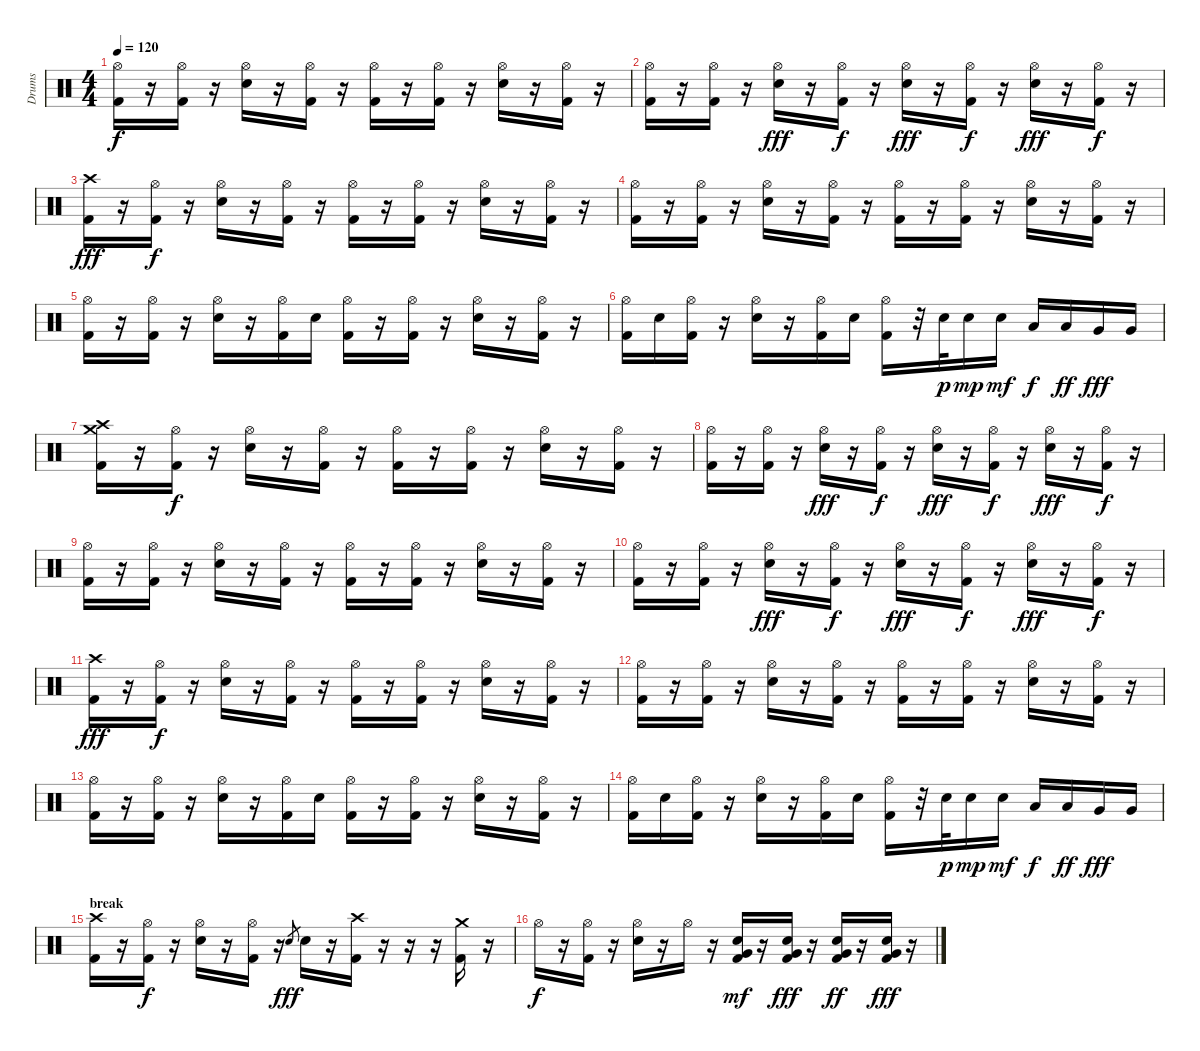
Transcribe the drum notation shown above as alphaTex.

\track ("Drums" "Drums") {instrument percussion}
\staff {score}
\articulation defaults
\ts (4 4)
\tempo 120
\clef neutral
\ks c
("Hi-Hat (open)" "Kick (hit) 2").16{dy f} r.16 ("Hi-Hat (open)" "Kick (hit) 2").16 r.16 ("Hi-Hat (open)" "Electric Snare (hit)").16 r.16 ("Hi-Hat (open)" "Kick (hit) 2").16 r.16 ("Hi-Hat (open)" "Kick (hit) 2").16 r.16 ("Hi-Hat (open)" "Kick (hit) 2").16 r.16 ("Hi-Hat (open)" "Electric Snare (hit)").16 r.16 ("Hi-Hat (open)" "Kick (hit) 2").16 r.16 |
("Hi-Hat (open)" "Kick (hit) 2").16 r.16 ("Hi-Hat (open)" "Kick (hit) 2").16 r.16 ("Hi-Hat (open)" "Electric Snare (hit)").16{dy fff} r.16 ("Hi-Hat (open)" "Kick (hit) 2").16{dy f} r.16 ("Hi-Hat (open)" "Electric Snare (hit)").16{dy fff} r.16 ("Hi-Hat (open)" "Kick (hit) 2").16{dy f} r.16 ("Hi-Hat (open)" "Electric Snare (hit)").16{dy fff} r.16 ("Hi-Hat (open)" "Kick (hit) 2").16{dy f} r.16 |
("Crash high (hit)" "Kick (hit) 2").16{dy fff} r.16 ("Hi-Hat (open)" "Kick (hit) 2").16{dy f} r.16 ("Hi-Hat (open)" "Electric Snare (hit)").16 r.16 ("Hi-Hat (open)" "Kick (hit) 2").16 r.16 ("Hi-Hat (open)" "Kick (hit) 2").16 r.16 ("Hi-Hat (open)" "Kick (hit) 2").16 r.16 ("Hi-Hat (open)" "Electric Snare (hit)").16 r.16 ("Hi-Hat (open)" "Kick (hit) 2").16 r.16 |
("Hi-Hat (open)" "Kick (hit) 2").16 r.16 ("Hi-Hat (open)" "Kick (hit) 2").16 r.16 ("Hi-Hat (open)" "Electric Snare (hit)").16 r.16 ("Hi-Hat (open)" "Kick (hit) 2").16 r.16 ("Hi-Hat (open)" "Kick (hit) 2").16 r.16 ("Hi-Hat (open)" "Kick (hit) 2").16 r.16 ("Hi-Hat (open)" "Electric Snare (hit)").16 r.16 ("Hi-Hat (open)" "Kick (hit) 2").16 r.16 |
("Hi-Hat (open)" "Kick (hit) 2").16 r.16 ("Hi-Hat (open)" "Kick (hit) 2").16 r.16 ("Hi-Hat (open)" "Electric Snare (hit)").16 r.16 ("Hi-Hat (open)" "Kick (hit) 2").16 "Electric Snare (hit)".16 ("Hi-Hat (open)" "Kick (hit) 2").16 r.16 ("Hi-Hat (open)" "Kick (hit) 2").16 r.16 ("Hi-Hat (open)" "Electric Snare (hit)").16 r.16 ("Hi-Hat (open)" "Kick (hit) 2").16 r.16 |
("Hi-Hat (open)" "Kick (hit) 2").16 "Electric Snare (hit)".16 ("Hi-Hat (open)" "Kick (hit) 2").16 r.16 ("Hi-Hat (open)" "Electric Snare (hit)").16 r.16 ("Hi-Hat (open)" "Kick (hit) 2").16 "Electric Snare (hit)".16 ("Hi-Hat (open)" "Kick (hit) 2").16 r.32 "Electric Snare (hit)".32{dy p} "Electric Snare (hit)".16{dy mp} "Electric Snare (hit)".16{dy mf} "Low Tom (hit)".16{dy f} "Low Tom (hit)".16{dy ff} "Very Low Tom (hit)".16{dy fff} "Very Low Tom (hit)".16 |
("Crash high (hit)" "Crash medium (hit)" "Kick (hit) 2").16 r.16 ("Hi-Hat (open)" "Kick (hit) 2").16{dy f} r.16 ("Hi-Hat (open)" "Electric Snare (hit)").16 r.16 ("Hi-Hat (open)" "Kick (hit) 2").16 r.16 ("Hi-Hat (open)" "Kick (hit) 2").16 r.16 ("Hi-Hat (open)" "Kick (hit) 2").16 r.16 ("Hi-Hat (open)" "Electric Snare (hit)").16 r.16 ("Hi-Hat (open)" "Kick (hit) 2").16 r.16 |
("Hi-Hat (open)" "Kick (hit) 2").16 r.16 ("Hi-Hat (open)" "Kick (hit) 2").16 r.16 ("Hi-Hat (open)" "Electric Snare (hit)").16{dy fff} r.16 ("Hi-Hat (open)" "Kick (hit) 2").16{dy f} r.16 ("Hi-Hat (open)" "Electric Snare (hit)").16{dy fff} r.16 ("Hi-Hat (open)" "Kick (hit) 2").16{dy f} r.16 ("Hi-Hat (open)" "Electric Snare (hit)").16{dy fff} r.16 ("Hi-Hat (open)" "Kick (hit) 2").16{dy f} r.16 |
("Hi-Hat (open)" "Kick (hit) 2").16 r.16 ("Hi-Hat (open)" "Kick (hit) 2").16 r.16 ("Hi-Hat (open)" "Electric Snare (hit)").16 r.16 ("Hi-Hat (open)" "Kick (hit) 2").16 r.16 ("Hi-Hat (open)" "Kick (hit) 2").16 r.16 ("Hi-Hat (open)" "Kick (hit) 2").16 r.16 ("Hi-Hat (open)" "Electric Snare (hit)").16 r.16 ("Hi-Hat (open)" "Kick (hit) 2").16 r.16 |
("Hi-Hat (open)" "Kick (hit) 2").16 r.16 ("Hi-Hat (open)" "Kick (hit) 2").16 r.16 ("Hi-Hat (open)" "Electric Snare (hit)").16{dy fff} r.16 ("Hi-Hat (open)" "Kick (hit) 2").16{dy f} r.16 ("Hi-Hat (open)" "Electric Snare (hit)").16{dy fff} r.16 ("Hi-Hat (open)" "Kick (hit) 2").16{dy f} r.16 ("Hi-Hat (open)" "Electric Snare (hit)").16{dy fff} r.16 ("Hi-Hat (open)" "Kick (hit) 2").16{dy f} r.16 |
("Crash high (hit)" "Kick (hit) 2").16{dy fff} r.16 ("Hi-Hat (open)" "Kick (hit) 2").16{dy f} r.16 ("Hi-Hat (open)" "Electric Snare (hit)").16 r.16 ("Hi-Hat (open)" "Kick (hit) 2").16 r.16 ("Hi-Hat (open)" "Kick (hit) 2").16 r.16 ("Hi-Hat (open)" "Kick (hit) 2").16 r.16 ("Hi-Hat (open)" "Electric Snare (hit)").16 r.16 ("Hi-Hat (open)" "Kick (hit) 2").16 r.16 |
("Hi-Hat (open)" "Kick (hit) 2").16 r.16 ("Hi-Hat (open)" "Kick (hit) 2").16 r.16 ("Hi-Hat (open)" "Electric Snare (hit)").16 r.16 ("Hi-Hat (open)" "Kick (hit) 2").16 r.16 ("Hi-Hat (open)" "Kick (hit) 2").16 r.16 ("Hi-Hat (open)" "Kick (hit) 2").16 r.16 ("Hi-Hat (open)" "Electric Snare (hit)").16 r.16 ("Hi-Hat (open)" "Kick (hit) 2").16 r.16 |
("Hi-Hat (open)" "Kick (hit) 2").16 r.16 ("Hi-Hat (open)" "Kick (hit) 2").16 r.16 ("Hi-Hat (open)" "Electric Snare (hit)").16 r.16 ("Hi-Hat (open)" "Kick (hit) 2").16 "Electric Snare (hit)".16 ("Hi-Hat (open)" "Kick (hit) 2").16 r.16 ("Hi-Hat (open)" "Kick (hit) 2").16 r.16 ("Hi-Hat (open)" "Electric Snare (hit)").16 r.16 ("Hi-Hat (open)" "Kick (hit) 2").16 r.16 |
("Hi-Hat (open)" "Kick (hit) 2").16 "Electric Snare (hit)".16 ("Hi-Hat (open)" "Kick (hit) 2").16 r.16 ("Hi-Hat (open)" "Electric Snare (hit)").16 r.16 ("Hi-Hat (open)" "Kick (hit) 2").16 "Electric Snare (hit)".16 ("Hi-Hat (open)" "Kick (hit) 2").16 r.32 "Electric Snare (hit)".32{dy p} "Electric Snare (hit)".16{dy mp} "Electric Snare (hit)".16{dy mf} "Low Tom (hit)".16{dy f} "Low Tom (hit)".16{dy ff} "Very Low Tom (hit)".16{dy fff} "Very Low Tom (hit)".16 |
\section ("" "break")
("Crash high (hit)" "Kick (hit) 2").16 r.16 ("Hi-Hat (open)" "Kick (hit) 2").16{dy f} r.16 ("Hi-Hat (open)" "Electric Snare (hit)").16 r.16 ("Hi-Hat (open)" "Kick (hit) 2").16 r.16 "Electric Snare (hit)".8{gr dy fff} "Electric Snare (hit)".16 r.16 ("Crash high (hit)" "Kick (hit) 2").16 r.16 r.16 r.16 ("Crash medium (hit)" "Kick (hit) 2").16 r.16 |
"Hi-Hat (open)".16{dy f} r.16 ("Hi-Hat (open)" "Kick (hit) 2").16 r.16 ("Hi-Hat (open)" "Electric Snare (hit)").16 r.16 "Hi-Hat (open)".16 r.16 ("Electric Snare (hit)" "Very Low Tom (hit)" "Kick (hit) 2").16{dy mf} r.16 ("Electric Snare (hit)" "Very Low Tom (hit)" "Kick (hit) 2").16{dy fff} r.16 ("Electric Snare (hit)" "Very Low Tom (hit)" "Kick (hit) 2").16{dy ff} r.16 ("Electric Snare (hit)" "Very Low Tom (hit)" "Kick (hit) 2").16{dy fff} r.16
